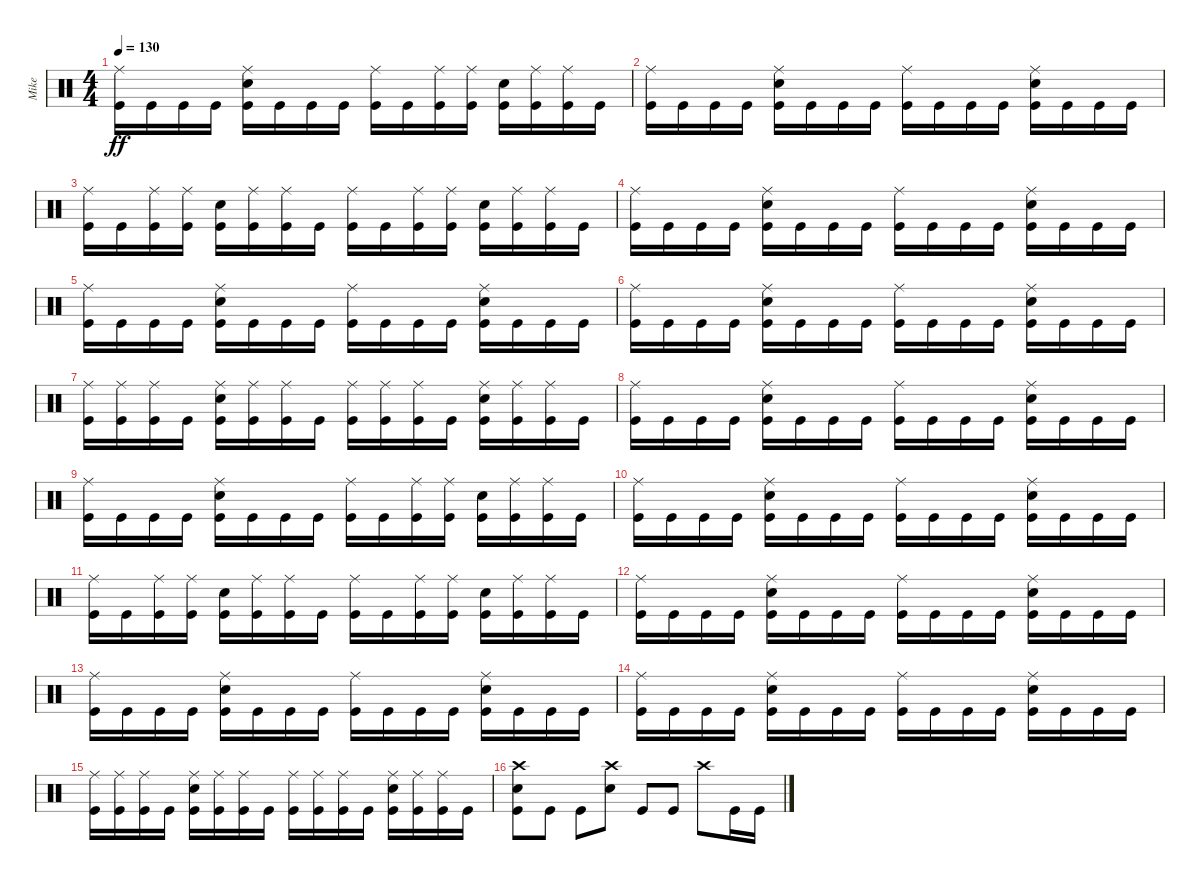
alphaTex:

\track ("Mike" "Mike") {instrument percussion}
\staff {score}
\articulation defaults
\ts (4 4)
\tempo 130
\clef neutral
\ks c
("Ride (middle)" "Kick (hit)").16{dy ff} "Kick (hit)".16 "Kick (hit)".16 "Kick (hit)".16 ("Snare (hit) 2" "Ride (middle)" "Kick (hit)").16 "Kick (hit)".16 "Kick (hit)".16 "Kick (hit)".16 ("Ride (middle)" "Kick (hit)").16 "Kick (hit)".16 ("Ride (middle)" "Kick (hit)").16 ("Ride (middle)" "Kick (hit)").16 ("Snare (hit) 2" "Kick (hit)").16 ("Ride (middle)" "Kick (hit)").16 ("Ride (middle)" "Kick (hit)").16 "Kick (hit)".16 |
("Ride (middle)" "Kick (hit)").16 "Kick (hit)".16 "Kick (hit)".16 "Kick (hit)".16 ("Snare (hit) 2" "Ride (middle)" "Kick (hit)").16 "Kick (hit)".16 "Kick (hit)".16 "Kick (hit)".16 ("Ride (middle)" "Kick (hit)").16 "Kick (hit)".16 "Kick (hit)".16 "Kick (hit)".16 ("Snare (hit) 2" "Ride (middle)" "Kick (hit)").16 "Kick (hit)".16 "Kick (hit)".16 "Kick (hit)".16 |
("Ride (middle)" "Kick (hit)").16 "Kick (hit)".16 ("Ride (middle)" "Kick (hit)").16 ("Ride (middle)" "Kick (hit)").16 ("Snare (hit) 2" "Kick (hit)").16 ("Ride (middle)" "Kick (hit)").16 ("Ride (middle)" "Kick (hit)").16 "Kick (hit)".16 ("Ride (middle)" "Kick (hit)").16 "Kick (hit)".16 ("Ride (middle)" "Kick (hit)").16 ("Ride (middle)" "Kick (hit)").16 ("Snare (hit) 2" "Kick (hit)").16 ("Ride (middle)" "Kick (hit)").16 ("Ride (middle)" "Kick (hit)").16 "Kick (hit)".16 |
("Ride (middle)" "Kick (hit)").16 "Kick (hit)".16 "Kick (hit)".16 "Kick (hit)".16 ("Snare (hit) 2" "Ride (middle)" "Kick (hit)").16 "Kick (hit)".16 "Kick (hit)".16 "Kick (hit)".16 ("Ride (middle)" "Kick (hit)").16 "Kick (hit)".16 "Kick (hit)".16 "Kick (hit)".16 ("Snare (hit) 2" "Ride (middle)" "Kick (hit)").16 "Kick (hit)".16 "Kick (hit)".16 "Kick (hit)".16 |
("Ride (middle)" "Kick (hit)").16 "Kick (hit)".16 "Kick (hit)".16 "Kick (hit)".16 ("Snare (hit) 2" "Ride (middle)" "Kick (hit)").16 "Kick (hit)".16 "Kick (hit)".16 "Kick (hit)".16 ("Ride (middle)" "Kick (hit)").16 "Kick (hit)".16 "Kick (hit)".16 "Kick (hit)".16 ("Snare (hit) 2" "Ride (middle)" "Kick (hit)").16 "Kick (hit)".16 "Kick (hit)".16 "Kick (hit)".16 |
("Ride (middle)" "Kick (hit)").16 "Kick (hit)".16 "Kick (hit)".16 "Kick (hit)".16 ("Snare (hit) 2" "Ride (middle)" "Kick (hit)").16 "Kick (hit)".16 "Kick (hit)".16 "Kick (hit)".16 ("Ride (middle)" "Kick (hit)").16 "Kick (hit)".16 "Kick (hit)".16 "Kick (hit)".16 ("Snare (hit) 2" "Ride (middle)" "Kick (hit)").16 "Kick (hit)".16 "Kick (hit)".16 "Kick (hit)".16 |
("Ride (middle)" "Kick (hit)").16 ("Ride (middle)" "Kick (hit)").16 ("Ride (middle)" "Kick (hit)").16 "Kick (hit)".16 ("Snare (hit) 2" "Ride (middle)" "Kick (hit)").16 ("Ride (middle)" "Kick (hit)").16 ("Ride (middle)" "Kick (hit)").16 "Kick (hit)".16 ("Ride (middle)" "Kick (hit)").16 ("Ride (middle)" "Kick (hit)").16 ("Ride (middle)" "Kick (hit)").16 "Kick (hit)".16 ("Snare (hit) 2" "Ride (middle)" "Kick (hit)").16 ("Ride (middle)" "Kick (hit)").16 ("Ride (middle)" "Kick (hit)").16 "Kick (hit)".16 |
("Ride (middle)" "Kick (hit)").16 "Kick (hit)".16 "Kick (hit)".16 "Kick (hit)".16 ("Snare (hit) 2" "Ride (middle)" "Kick (hit)").16 "Kick (hit)".16 "Kick (hit)".16 "Kick (hit)".16 ("Ride (middle)" "Kick (hit)").16 "Kick (hit)".16 "Kick (hit)".16 "Kick (hit)".16 ("Snare (hit) 2" "Ride (middle)" "Kick (hit)").16 "Kick (hit)".16 "Kick (hit)".16 "Kick (hit)".16 |
("Ride (middle)" "Kick (hit)").16 "Kick (hit)".16 "Kick (hit)".16 "Kick (hit)".16 ("Snare (hit) 2" "Ride (middle)" "Kick (hit)").16 "Kick (hit)".16 "Kick (hit)".16 "Kick (hit)".16 ("Ride (middle)" "Kick (hit)").16 "Kick (hit)".16 ("Ride (middle)" "Kick (hit)").16 ("Ride (middle)" "Kick (hit)").16 ("Snare (hit) 2" "Kick (hit)").16 ("Ride (middle)" "Kick (hit)").16 ("Ride (middle)" "Kick (hit)").16 "Kick (hit)".16 |
("Ride (middle)" "Kick (hit)").16 "Kick (hit)".16 "Kick (hit)".16 "Kick (hit)".16 ("Snare (hit) 2" "Ride (middle)" "Kick (hit)").16 "Kick (hit)".16 "Kick (hit)".16 "Kick (hit)".16 ("Ride (middle)" "Kick (hit)").16 "Kick (hit)".16 "Kick (hit)".16 "Kick (hit)".16 ("Snare (hit) 2" "Ride (middle)" "Kick (hit)").16 "Kick (hit)".16 "Kick (hit)".16 "Kick (hit)".16 |
("Ride (middle)" "Kick (hit)").16 "Kick (hit)".16 ("Ride (middle)" "Kick (hit)").16 ("Ride (middle)" "Kick (hit)").16 ("Snare (hit) 2" "Kick (hit)").16 ("Ride (middle)" "Kick (hit)").16 ("Ride (middle)" "Kick (hit)").16 "Kick (hit)".16 ("Ride (middle)" "Kick (hit)").16 "Kick (hit)".16 ("Ride (middle)" "Kick (hit)").16 ("Ride (middle)" "Kick (hit)").16 ("Snare (hit) 2" "Kick (hit)").16 ("Ride (middle)" "Kick (hit)").16 ("Ride (middle)" "Kick (hit)").16 "Kick (hit)".16 |
("Ride (middle)" "Kick (hit)").16 "Kick (hit)".16 "Kick (hit)".16 "Kick (hit)".16 ("Snare (hit) 2" "Ride (middle)" "Kick (hit)").16 "Kick (hit)".16 "Kick (hit)".16 "Kick (hit)".16 ("Ride (middle)" "Kick (hit)").16 "Kick (hit)".16 "Kick (hit)".16 "Kick (hit)".16 ("Snare (hit) 2" "Ride (middle)" "Kick (hit)").16 "Kick (hit)".16 "Kick (hit)".16 "Kick (hit)".16 |
("Ride (middle)" "Kick (hit)").16 "Kick (hit)".16 "Kick (hit)".16 "Kick (hit)".16 ("Snare (hit) 2" "Ride (middle)" "Kick (hit)").16 "Kick (hit)".16 "Kick (hit)".16 "Kick (hit)".16 ("Ride (middle)" "Kick (hit)").16 "Kick (hit)".16 "Kick (hit)".16 "Kick (hit)".16 ("Snare (hit) 2" "Ride (middle)" "Kick (hit)").16 "Kick (hit)".16 "Kick (hit)".16 "Kick (hit)".16 |
("Ride (middle)" "Kick (hit)").16 "Kick (hit)".16 "Kick (hit)".16 "Kick (hit)".16 ("Snare (hit) 2" "Ride (middle)" "Kick (hit)").16 "Kick (hit)".16 "Kick (hit)".16 "Kick (hit)".16 ("Ride (middle)" "Kick (hit)").16 "Kick (hit)".16 "Kick (hit)".16 "Kick (hit)".16 ("Snare (hit) 2" "Ride (middle)" "Kick (hit)").16 "Kick (hit)".16 "Kick (hit)".16 "Kick (hit)".16 |
("Ride (middle)" "Kick (hit)").16 ("Ride (middle)" "Kick (hit)").16 ("Ride (middle)" "Kick (hit)").16 "Kick (hit)".16 ("Snare (hit) 2" "Ride (middle)" "Kick (hit)").16 ("Ride (middle)" "Kick (hit)").16 ("Ride (middle)" "Kick (hit)").16 "Kick (hit)".16 ("Ride (middle)" "Kick (hit)").16 ("Ride (middle)" "Kick (hit)").16 ("Ride (middle)" "Kick (hit)").16 "Kick (hit)".16 ("Snare (hit) 2" "Ride (middle)" "Kick (hit)").16 ("Ride (middle)" "Kick (hit)").16 ("Ride (middle)" "Kick (hit)").16 "Kick (hit)".16 |
("Snare (hit) 2" "Kick (hit)" "Crash high (hit)").8 "Kick (hit)".8 "Kick (hit)".8 ("Snare (hit) 2" "Crash high (hit)").8 "Kick (hit)".8 "Kick (hit)".8 "Crash high (hit)".8 "Kick (hit)".16 "Kick (hit)".16
